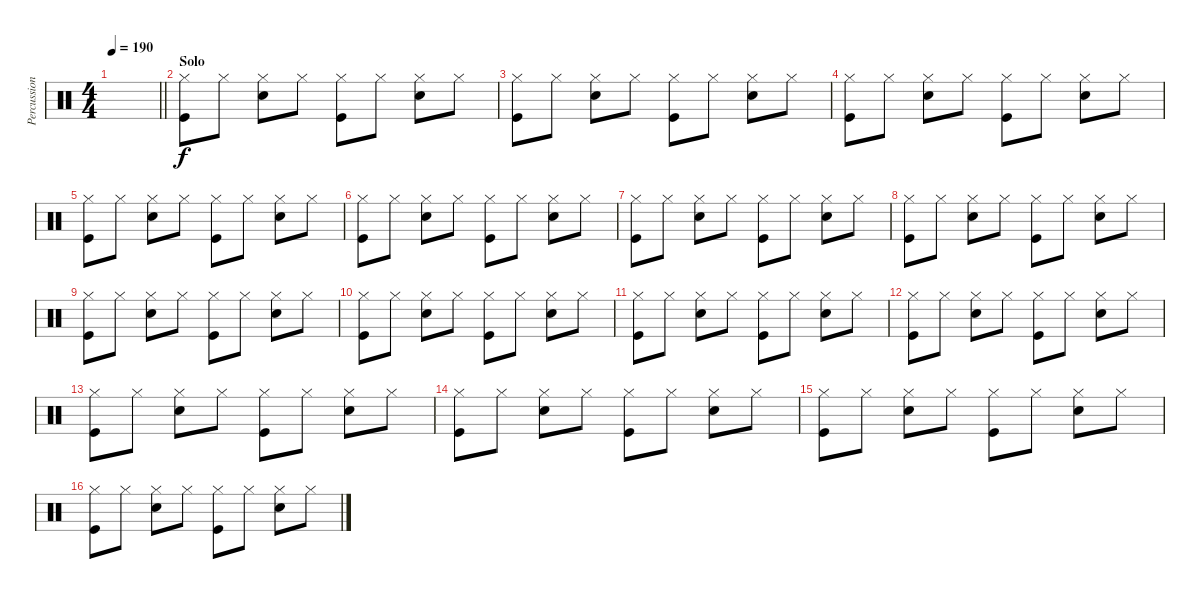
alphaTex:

\track ("Percussion" "Percussion") {instrument percussion}
\staff {score}
\articulation defaults
\ts (4 4)
\tempo 190
\clef neutral
\barLineRight lightlight
\ks c
|
\section ("" "Solo")
("Hi-Hat (closed)" "Kick (hit)").8 "Hi-Hat (closed)".8 ("Hi-Hat (closed)" "Electric Snare (hit)").8 "Hi-Hat (closed)".8 ("Hi-Hat (closed)" "Kick (hit)").8 "Hi-Hat (closed)".8 ("Hi-Hat (closed)" "Electric Snare (hit)").8 "Hi-Hat (closed)".8 |
("Hi-Hat (closed)" "Kick (hit)").8 "Hi-Hat (closed)".8 ("Hi-Hat (closed)" "Electric Snare (hit)").8 "Hi-Hat (closed)".8 ("Hi-Hat (closed)" "Kick (hit)").8 "Hi-Hat (closed)".8 ("Hi-Hat (closed)" "Electric Snare (hit)").8 "Hi-Hat (closed)".8 |
("Hi-Hat (closed)" "Kick (hit)").8 "Hi-Hat (closed)".8 ("Hi-Hat (closed)" "Electric Snare (hit)").8 "Hi-Hat (closed)".8 ("Hi-Hat (closed)" "Kick (hit)").8 "Hi-Hat (closed)".8 ("Hi-Hat (closed)" "Electric Snare (hit)").8 "Hi-Hat (closed)".8 |
("Hi-Hat (closed)" "Kick (hit)").8 "Hi-Hat (closed)".8 ("Hi-Hat (closed)" "Electric Snare (hit)").8 "Hi-Hat (closed)".8 ("Hi-Hat (closed)" "Kick (hit)").8 "Hi-Hat (closed)".8 ("Hi-Hat (closed)" "Electric Snare (hit)").8 "Hi-Hat (closed)".8 |
("Hi-Hat (closed)" "Kick (hit)").8 "Hi-Hat (closed)".8 ("Hi-Hat (closed)" "Electric Snare (hit)").8 "Hi-Hat (closed)".8 ("Hi-Hat (closed)" "Kick (hit)").8 "Hi-Hat (closed)".8 ("Hi-Hat (closed)" "Electric Snare (hit)").8 "Hi-Hat (closed)".8 |
("Hi-Hat (closed)" "Kick (hit)").8 "Hi-Hat (closed)".8 ("Hi-Hat (closed)" "Electric Snare (hit)").8 "Hi-Hat (closed)".8 ("Hi-Hat (closed)" "Kick (hit)").8 "Hi-Hat (closed)".8 ("Hi-Hat (closed)" "Electric Snare (hit)").8 "Hi-Hat (closed)".8 |
("Hi-Hat (closed)" "Kick (hit)").8 "Hi-Hat (closed)".8 ("Hi-Hat (closed)" "Electric Snare (hit)").8 "Hi-Hat (closed)".8 ("Hi-Hat (closed)" "Kick (hit)").8 "Hi-Hat (closed)".8 ("Hi-Hat (closed)" "Electric Snare (hit)").8 "Hi-Hat (closed)".8 |
("Hi-Hat (closed)" "Kick (hit)").8 "Hi-Hat (closed)".8 ("Hi-Hat (closed)" "Electric Snare (hit)").8 "Hi-Hat (closed)".8 ("Hi-Hat (closed)" "Kick (hit)").8 "Hi-Hat (closed)".8 ("Hi-Hat (closed)" "Electric Snare (hit)").8 "Hi-Hat (closed)".8 |
("Hi-Hat (closed)" "Kick (hit)").8 "Hi-Hat (closed)".8 ("Hi-Hat (closed)" "Electric Snare (hit)").8 "Hi-Hat (closed)".8 ("Hi-Hat (closed)" "Kick (hit)").8 "Hi-Hat (closed)".8 ("Hi-Hat (closed)" "Electric Snare (hit)").8 "Hi-Hat (closed)".8 |
("Hi-Hat (closed)" "Kick (hit)").8 "Hi-Hat (closed)".8 ("Hi-Hat (closed)" "Electric Snare (hit)").8 "Hi-Hat (closed)".8 ("Hi-Hat (closed)" "Kick (hit)").8 "Hi-Hat (closed)".8 ("Hi-Hat (closed)" "Electric Snare (hit)").8 "Hi-Hat (closed)".8 |
("Hi-Hat (closed)" "Kick (hit)").8 "Hi-Hat (closed)".8 ("Hi-Hat (closed)" "Electric Snare (hit)").8 "Hi-Hat (closed)".8 ("Hi-Hat (closed)" "Kick (hit)").8 "Hi-Hat (closed)".8 ("Hi-Hat (closed)" "Electric Snare (hit)").8 "Hi-Hat (closed)".8 |
("Hi-Hat (closed)" "Kick (hit)").8 "Hi-Hat (closed)".8 ("Hi-Hat (closed)" "Electric Snare (hit)").8 "Hi-Hat (closed)".8 ("Hi-Hat (closed)" "Kick (hit)").8 "Hi-Hat (closed)".8 ("Hi-Hat (closed)" "Electric Snare (hit)").8 "Hi-Hat (closed)".8 |
("Hi-Hat (closed)" "Kick (hit)").8 "Hi-Hat (closed)".8 ("Hi-Hat (closed)" "Electric Snare (hit)").8 "Hi-Hat (closed)".8 ("Hi-Hat (closed)" "Kick (hit)").8 "Hi-Hat (closed)".8 ("Hi-Hat (closed)" "Electric Snare (hit)").8 "Hi-Hat (closed)".8 |
("Hi-Hat (closed)" "Kick (hit)").8 "Hi-Hat (closed)".8 ("Hi-Hat (closed)" "Electric Snare (hit)").8 "Hi-Hat (closed)".8 ("Hi-Hat (closed)" "Kick (hit)").8 "Hi-Hat (closed)".8 ("Hi-Hat (closed)" "Electric Snare (hit)").8 "Hi-Hat (closed)".8 |
("Hi-Hat (closed)" "Kick (hit)").8 "Hi-Hat (closed)".8 ("Hi-Hat (closed)" "Electric Snare (hit)").8 "Hi-Hat (closed)".8 ("Hi-Hat (closed)" "Kick (hit)").8 "Hi-Hat (closed)".8 ("Hi-Hat (closed)" "Electric Snare (hit)").8 "Hi-Hat (closed)".8
